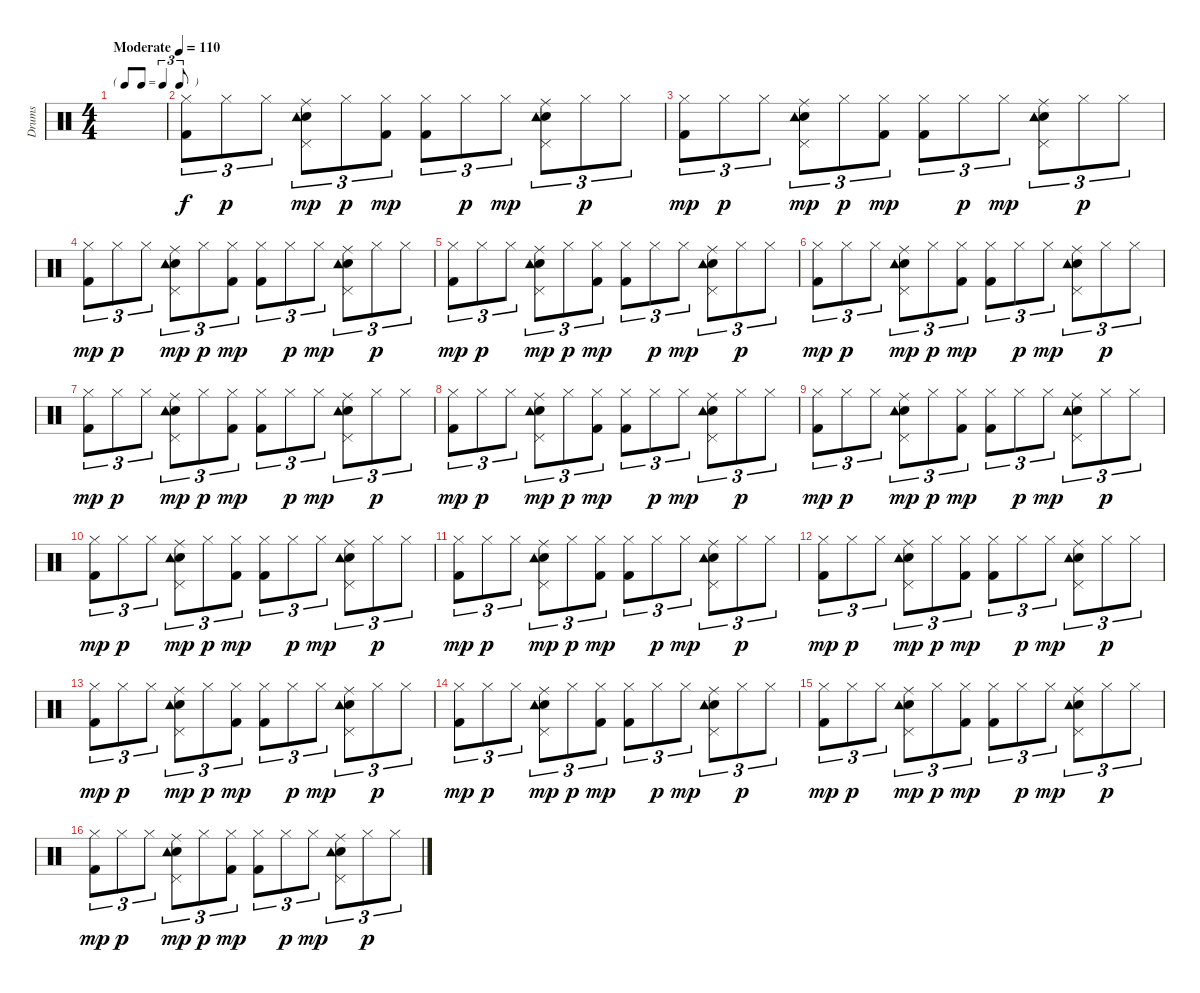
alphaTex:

\track ("Drums" "Drums") {instrument percussion}
\staff {score}
\articulation defaults
\ts (4 4)
\tf triplet8th
\tempo (110 "Moderate")
\clef neutral
\ks c
|
("Kick (hit) 2" "Hi-Hat (closed)").8{tu (3 2)} "Hi-Hat (closed)".8{tu (3 2) dy p} "Hi-Hat (closed)".8{tu (3 2)} ("Snare (hit) 2" "Pedal Hi-Hat (hit)" "Ride (middle)" "Tambourine (hit)").8{tu (3 2) dy mp} "Hi-Hat (closed)".8{tu (3 2) dy p} ("Hi-Hat (closed)" "Kick (hit) 2").8{tu (3 2) dy mp} ("Kick (hit) 2" "Hi-Hat (closed)").8{tu (3 2)} "Hi-Hat (closed)".8{tu (3 2) dy p} "Hi-Hat (closed)".8{tu (3 2) dy mp} ("Snare (hit) 2" "Pedal Hi-Hat (hit)" "Ride (middle)" "Tambourine (hit)").8{tu (3 2)} "Hi-Hat (closed)".8{tu (3 2) dy p} "Hi-Hat (closed)".8{tu (3 2)} |
("Kick (hit) 2" "Hi-Hat (closed)").8{tu (3 2) dy mp} "Hi-Hat (closed)".8{tu (3 2) dy p} "Hi-Hat (closed)".8{tu (3 2)} ("Snare (hit) 2" "Pedal Hi-Hat (hit)" "Ride (middle)" "Tambourine (hit)").8{tu (3 2) dy mp} "Hi-Hat (closed)".8{tu (3 2) dy p} ("Hi-Hat (closed)" "Kick (hit) 2").8{tu (3 2) dy mp} ("Kick (hit) 2" "Hi-Hat (closed)").8{tu (3 2)} "Hi-Hat (closed)".8{tu (3 2) dy p} "Hi-Hat (closed)".8{tu (3 2) dy mp} ("Snare (hit) 2" "Pedal Hi-Hat (hit)" "Ride (middle)" "Tambourine (hit)").8{tu (3 2)} "Hi-Hat (closed)".8{tu (3 2) dy p} "Hi-Hat (closed)".8{tu (3 2)} |
("Kick (hit) 2" "Hi-Hat (closed)").8{tu (3 2) dy mp} "Hi-Hat (closed)".8{tu (3 2) dy p} "Hi-Hat (closed)".8{tu (3 2)} ("Snare (hit) 2" "Pedal Hi-Hat (hit)" "Ride (middle)" "Tambourine (hit)").8{tu (3 2) dy mp} "Hi-Hat (closed)".8{tu (3 2) dy p} ("Hi-Hat (closed)" "Kick (hit) 2").8{tu (3 2) dy mp} ("Kick (hit) 2" "Hi-Hat (closed)").8{tu (3 2)} "Hi-Hat (closed)".8{tu (3 2) dy p} "Hi-Hat (closed)".8{tu (3 2) dy mp} ("Snare (hit) 2" "Pedal Hi-Hat (hit)" "Ride (middle)" "Tambourine (hit)").8{tu (3 2)} "Hi-Hat (closed)".8{tu (3 2) dy p} "Hi-Hat (closed)".8{tu (3 2)} |
("Kick (hit) 2" "Hi-Hat (closed)").8{tu (3 2) dy mp} "Hi-Hat (closed)".8{tu (3 2) dy p} "Hi-Hat (closed)".8{tu (3 2)} ("Snare (hit) 2" "Pedal Hi-Hat (hit)" "Ride (middle)" "Tambourine (hit)").8{tu (3 2) dy mp} "Hi-Hat (closed)".8{tu (3 2) dy p} ("Hi-Hat (closed)" "Kick (hit) 2").8{tu (3 2) dy mp} ("Kick (hit) 2" "Hi-Hat (closed)").8{tu (3 2)} "Hi-Hat (closed)".8{tu (3 2) dy p} "Hi-Hat (closed)".8{tu (3 2) dy mp} ("Snare (hit) 2" "Pedal Hi-Hat (hit)" "Ride (middle)" "Tambourine (hit)").8{tu (3 2)} "Hi-Hat (closed)".8{tu (3 2) dy p} "Hi-Hat (closed)".8{tu (3 2)} |
("Kick (hit) 2" "Hi-Hat (closed)").8{tu (3 2) dy mp} "Hi-Hat (closed)".8{tu (3 2) dy p} "Hi-Hat (closed)".8{tu (3 2)} ("Snare (hit) 2" "Pedal Hi-Hat (hit)" "Ride (middle)" "Tambourine (hit)").8{tu (3 2) dy mp} "Hi-Hat (closed)".8{tu (3 2) dy p} ("Hi-Hat (closed)" "Kick (hit) 2").8{tu (3 2) dy mp} ("Kick (hit) 2" "Hi-Hat (closed)").8{tu (3 2)} "Hi-Hat (closed)".8{tu (3 2) dy p} "Hi-Hat (closed)".8{tu (3 2) dy mp} ("Snare (hit) 2" "Pedal Hi-Hat (hit)" "Ride (middle)" "Tambourine (hit)").8{tu (3 2)} "Hi-Hat (closed)".8{tu (3 2) dy p} "Hi-Hat (closed)".8{tu (3 2)} |
("Kick (hit) 2" "Hi-Hat (closed)").8{tu (3 2) dy mp} "Hi-Hat (closed)".8{tu (3 2) dy p} "Hi-Hat (closed)".8{tu (3 2)} ("Snare (hit) 2" "Pedal Hi-Hat (hit)" "Ride (middle)" "Tambourine (hit)").8{tu (3 2) dy mp} "Hi-Hat (closed)".8{tu (3 2) dy p} ("Hi-Hat (closed)" "Kick (hit) 2").8{tu (3 2) dy mp} ("Kick (hit) 2" "Hi-Hat (closed)").8{tu (3 2)} "Hi-Hat (closed)".8{tu (3 2) dy p} "Hi-Hat (closed)".8{tu (3 2) dy mp} ("Snare (hit) 2" "Pedal Hi-Hat (hit)" "Ride (middle)" "Tambourine (hit)").8{tu (3 2)} "Hi-Hat (closed)".8{tu (3 2) dy p} "Hi-Hat (closed)".8{tu (3 2)} |
("Kick (hit) 2" "Hi-Hat (closed)").8{tu (3 2) dy mp} "Hi-Hat (closed)".8{tu (3 2) dy p} "Hi-Hat (closed)".8{tu (3 2)} ("Snare (hit) 2" "Pedal Hi-Hat (hit)" "Ride (middle)" "Tambourine (hit)").8{tu (3 2) dy mp} "Hi-Hat (closed)".8{tu (3 2) dy p} ("Hi-Hat (closed)" "Kick (hit) 2").8{tu (3 2) dy mp} ("Kick (hit) 2" "Hi-Hat (closed)").8{tu (3 2)} "Hi-Hat (closed)".8{tu (3 2) dy p} "Hi-Hat (closed)".8{tu (3 2) dy mp} ("Snare (hit) 2" "Pedal Hi-Hat (hit)" "Ride (middle)" "Tambourine (hit)").8{tu (3 2)} "Hi-Hat (closed)".8{tu (3 2) dy p} "Hi-Hat (closed)".8{tu (3 2)} |
("Kick (hit) 2" "Hi-Hat (closed)").8{tu (3 2) dy mp} "Hi-Hat (closed)".8{tu (3 2) dy p} "Hi-Hat (closed)".8{tu (3 2)} ("Snare (hit) 2" "Pedal Hi-Hat (hit)" "Ride (middle)" "Tambourine (hit)").8{tu (3 2) dy mp} "Hi-Hat (closed)".8{tu (3 2) dy p} ("Hi-Hat (closed)" "Kick (hit) 2").8{tu (3 2) dy mp} ("Kick (hit) 2" "Hi-Hat (closed)").8{tu (3 2)} "Hi-Hat (closed)".8{tu (3 2) dy p} "Hi-Hat (closed)".8{tu (3 2) dy mp} ("Snare (hit) 2" "Pedal Hi-Hat (hit)" "Ride (middle)" "Tambourine (hit)").8{tu (3 2)} "Hi-Hat (closed)".8{tu (3 2) dy p} "Hi-Hat (closed)".8{tu (3 2)} |
("Kick (hit) 2" "Hi-Hat (closed)").8{tu (3 2) dy mp} "Hi-Hat (closed)".8{tu (3 2) dy p} "Hi-Hat (closed)".8{tu (3 2)} ("Snare (hit) 2" "Pedal Hi-Hat (hit)" "Ride (middle)" "Tambourine (hit)").8{tu (3 2) dy mp} "Hi-Hat (closed)".8{tu (3 2) dy p} ("Hi-Hat (closed)" "Kick (hit) 2").8{tu (3 2) dy mp} ("Kick (hit) 2" "Hi-Hat (closed)").8{tu (3 2)} "Hi-Hat (closed)".8{tu (3 2) dy p} "Hi-Hat (closed)".8{tu (3 2) dy mp} ("Snare (hit) 2" "Pedal Hi-Hat (hit)" "Ride (middle)" "Tambourine (hit)").8{tu (3 2)} "Hi-Hat (closed)".8{tu (3 2) dy p} "Hi-Hat (closed)".8{tu (3 2)} |
("Kick (hit) 2" "Hi-Hat (closed)").8{tu (3 2) dy mp} "Hi-Hat (closed)".8{tu (3 2) dy p} "Hi-Hat (closed)".8{tu (3 2)} ("Snare (hit) 2" "Pedal Hi-Hat (hit)" "Ride (middle)" "Tambourine (hit)").8{tu (3 2) dy mp} "Hi-Hat (closed)".8{tu (3 2) dy p} ("Hi-Hat (closed)" "Kick (hit) 2").8{tu (3 2) dy mp} ("Kick (hit) 2" "Hi-Hat (closed)").8{tu (3 2)} "Hi-Hat (closed)".8{tu (3 2) dy p} "Hi-Hat (closed)".8{tu (3 2) dy mp} ("Snare (hit) 2" "Pedal Hi-Hat (hit)" "Ride (middle)" "Tambourine (hit)").8{tu (3 2)} "Hi-Hat (closed)".8{tu (3 2) dy p} "Hi-Hat (closed)".8{tu (3 2)} |
("Kick (hit) 2" "Hi-Hat (closed)").8{tu (3 2) dy mp} "Hi-Hat (closed)".8{tu (3 2) dy p} "Hi-Hat (closed)".8{tu (3 2)} ("Snare (hit) 2" "Pedal Hi-Hat (hit)" "Ride (middle)" "Tambourine (hit)").8{tu (3 2) dy mp} "Hi-Hat (closed)".8{tu (3 2) dy p} ("Hi-Hat (closed)" "Kick (hit) 2").8{tu (3 2) dy mp} ("Kick (hit) 2" "Hi-Hat (closed)").8{tu (3 2)} "Hi-Hat (closed)".8{tu (3 2) dy p} "Hi-Hat (closed)".8{tu (3 2) dy mp} ("Snare (hit) 2" "Pedal Hi-Hat (hit)" "Ride (middle)" "Tambourine (hit)").8{tu (3 2)} "Hi-Hat (closed)".8{tu (3 2) dy p} "Hi-Hat (closed)".8{tu (3 2)} |
("Kick (hit) 2" "Hi-Hat (closed)").8{tu (3 2) dy mp} "Hi-Hat (closed)".8{tu (3 2) dy p} "Hi-Hat (closed)".8{tu (3 2)} ("Snare (hit) 2" "Pedal Hi-Hat (hit)" "Ride (middle)" "Tambourine (hit)").8{tu (3 2) dy mp} "Hi-Hat (closed)".8{tu (3 2) dy p} ("Hi-Hat (closed)" "Kick (hit) 2").8{tu (3 2) dy mp} ("Kick (hit) 2" "Hi-Hat (closed)").8{tu (3 2)} "Hi-Hat (closed)".8{tu (3 2) dy p} "Hi-Hat (closed)".8{tu (3 2) dy mp} ("Snare (hit) 2" "Pedal Hi-Hat (hit)" "Ride (middle)" "Tambourine (hit)").8{tu (3 2)} "Hi-Hat (closed)".8{tu (3 2) dy p} "Hi-Hat (closed)".8{tu (3 2)} |
("Kick (hit) 2" "Hi-Hat (closed)").8{tu (3 2) dy mp} "Hi-Hat (closed)".8{tu (3 2) dy p} "Hi-Hat (closed)".8{tu (3 2)} ("Snare (hit) 2" "Pedal Hi-Hat (hit)" "Ride (middle)" "Tambourine (hit)").8{tu (3 2) dy mp} "Hi-Hat (closed)".8{tu (3 2) dy p} ("Hi-Hat (closed)" "Kick (hit) 2").8{tu (3 2) dy mp} ("Kick (hit) 2" "Hi-Hat (closed)").8{tu (3 2)} "Hi-Hat (closed)".8{tu (3 2) dy p} "Hi-Hat (closed)".8{tu (3 2) dy mp} ("Snare (hit) 2" "Pedal Hi-Hat (hit)" "Ride (middle)" "Tambourine (hit)").8{tu (3 2)} "Hi-Hat (closed)".8{tu (3 2) dy p} "Hi-Hat (closed)".8{tu (3 2)} |
("Kick (hit) 2" "Hi-Hat (closed)").8{tu (3 2) dy mp} "Hi-Hat (closed)".8{tu (3 2) dy p} "Hi-Hat (closed)".8{tu (3 2)} ("Snare (hit) 2" "Pedal Hi-Hat (hit)" "Ride (middle)" "Tambourine (hit)").8{tu (3 2) dy mp} "Hi-Hat (closed)".8{tu (3 2) dy p} ("Hi-Hat (closed)" "Kick (hit) 2").8{tu (3 2) dy mp} ("Kick (hit) 2" "Hi-Hat (closed)").8{tu (3 2)} "Hi-Hat (closed)".8{tu (3 2) dy p} "Hi-Hat (closed)".8{tu (3 2) dy mp} ("Snare (hit) 2" "Pedal Hi-Hat (hit)" "Ride (middle)" "Tambourine (hit)").8{tu (3 2)} "Hi-Hat (closed)".8{tu (3 2) dy p} "Hi-Hat (closed)".8{tu (3 2)} |
("Kick (hit) 2" "Hi-Hat (closed)").8{tu (3 2) dy mp} "Hi-Hat (closed)".8{tu (3 2) dy p} "Hi-Hat (closed)".8{tu (3 2)} ("Snare (hit) 2" "Pedal Hi-Hat (hit)" "Ride (middle)" "Tambourine (hit)").8{tu (3 2) dy mp} "Hi-Hat (closed)".8{tu (3 2) dy p} ("Hi-Hat (closed)" "Kick (hit) 2").8{tu (3 2) dy mp} ("Kick (hit) 2" "Hi-Hat (closed)").8{tu (3 2)} "Hi-Hat (closed)".8{tu (3 2) dy p} "Hi-Hat (closed)".8{tu (3 2) dy mp} ("Snare (hit) 2" "Pedal Hi-Hat (hit)" "Ride (middle)" "Tambourine (hit)").8{tu (3 2)} "Hi-Hat (closed)".8{tu (3 2) dy p} "Hi-Hat (closed)".8{tu (3 2)}
